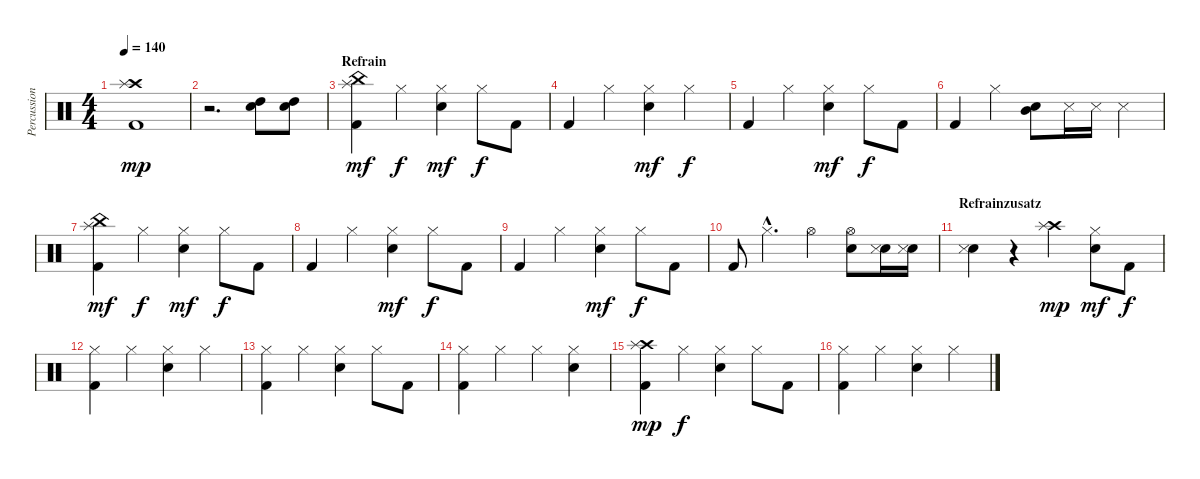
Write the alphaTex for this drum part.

\track ("Percussion" "Percussion") {instrument percussion}
\staff {score}
\articulation defaults
\ts (4 4)
\tempo 140
\clef neutral
\ks c
("Crash high (hit)" "Splash (hit)" "Kick (hit) 2").1{dy mp} |
r.2{d} ("High Tom (hit)" "Snare (hit) 2").8 ("High Tom (hit)" "Snare (hit) 2").8 |
\section ("" "Refrain")
("Splash (hit)" "China (hit)" "Kick (hit) 2").4{dy mf} "Hi-Hat (closed)".4{dy f} ("Hi-Hat (closed)" "Snare (hit) 2").4{dy mf} "Hi-Hat (closed)".8{dy f} "Kick (hit) 2".8 |
"Kick (hit) 2".4 "Hi-Hat (closed)".4 ("Hi-Hat (closed)" "Snare (hit) 2").4{dy mf} "Hi-Hat (closed)".4{dy f} |
"Kick (hit) 2".4 "Hi-Hat (closed)".4 ("Hi-Hat (closed)" "Snare (hit) 2").4{dy mf} "Hi-Hat (closed)".8{dy f} "Kick (hit) 2".8 |
"Kick (hit) 2".4 "Hi-Hat (closed)".4 ("Mid Tom (hit)" "Electric Snare (hit)").8 "Snare (side stick) 3".16 "Snare (side stick) 3".16 "Snare (side stick) 3".4 |
("Splash (hit)" "China (hit)" "Kick (hit) 2").4{dy mf} "Hi-Hat (closed)".4{dy f} ("Hi-Hat (closed)" "Snare (hit) 2").4{dy mf} "Hi-Hat (closed)".8{dy f} "Kick (hit) 2".8 |
"Kick (hit) 2".4 "Hi-Hat (closed)".4 ("Hi-Hat (closed)" "Snare (hit) 2").4{dy mf} "Hi-Hat (closed)".8{dy f} "Kick (hit) 2".8 |
"Kick (hit) 2".4 "Hi-Hat (closed)".4 ("Hi-Hat (closed)" "Snare (hit) 2").4{dy mf} "Hi-Hat (closed)".8{dy f} "Kick (hit) 2".8 |
"Kick (hit) 2".8 "Hi-Hat (closed)"{hac}.4{d} "Hi-Hat (open)".4 ("Hi-Hat (open)" "Electric Snare (hit)").8 ("Electric Snare (hit)" "Snare (side stick) 3").16 ("Electric Snare (hit)" "Snare (side stick) 3").16 |
\section ("" "Refrainzusatz")
("Electric Snare (hit)" "Snare (side stick) 3").4 r.4 ("Crash high (hit)" "Splash (hit)").4{dy mp} ("Hi-Hat (closed)" "Snare (hit) 2").8{dy mf} "Kick (hit) 2".8{dy f} |
("Hi-Hat (closed)" "Kick (hit) 2").4 "Hi-Hat (closed)".4 ("Hi-Hat (closed)" "Electric Snare (hit)").4 "Hi-Hat (closed)".4 |
("Hi-Hat (closed)" "Kick (hit) 2").4 "Hi-Hat (closed)".4 ("Hi-Hat (closed)" "Electric Snare (hit)").4 "Hi-Hat (closed)".8 "Kick (hit) 2".8 |
("Hi-Hat (closed)" "Kick (hit) 2").4 "Hi-Hat (closed)".4 "Hi-Hat (closed)".4 ("Hi-Hat (closed)" "Electric Snare (hit)").4 |
("Crash high (hit)" "Splash (hit)" "Kick (hit) 2").4{dy mp} "Hi-Hat (closed)".4{dy f} ("Hi-Hat (closed)" "Electric Snare (hit)").4 "Hi-Hat (closed)".8 "Kick (hit) 2".8 |
("Hi-Hat (closed)" "Kick (hit) 2").4 "Hi-Hat (closed)".4 ("Hi-Hat (closed)" "Electric Snare (hit)").4 "Hi-Hat (closed)".4
